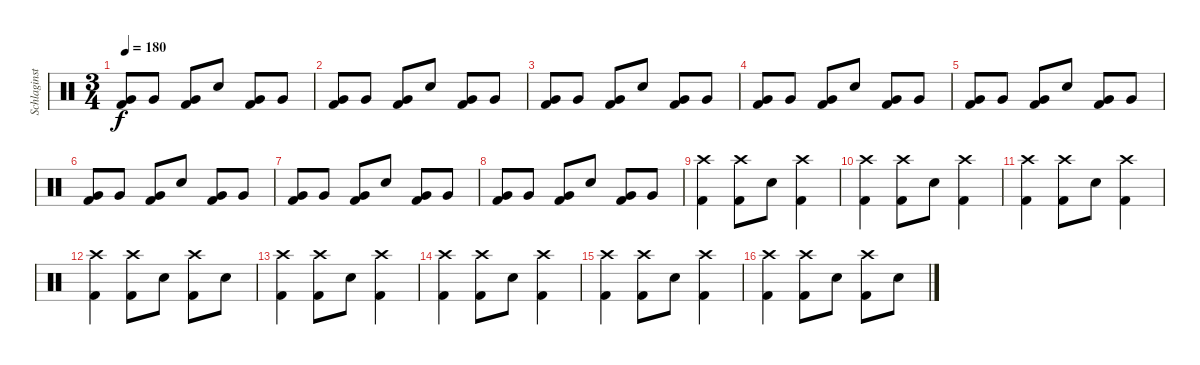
\track ("Schlaginstrumente - Auswahl" "Schlaginst") {instrument percussion}
\staff {score}
\articulation defaults
\ts (3 4)
\tempo 180
\clef neutral
\ks c
("Very Low Tom (hit)" "Kick (hit) 2").8{dy f} "Very Low Tom (hit)".8 ("Very Low Tom (hit)" "Kick (hit) 2").8 "Snare (hit) 2".8 ("Very Low Tom (hit)" "Kick (hit) 2").8 "Very Low Tom (hit)".8 |
("Very Low Tom (hit)" "Kick (hit) 2").8 "Very Low Tom (hit)".8 ("Very Low Tom (hit)" "Kick (hit) 2").8 "Snare (hit) 2".8 ("Very Low Tom (hit)" "Kick (hit) 2").8 "Very Low Tom (hit)".8 |
("Very Low Tom (hit)" "Kick (hit) 2").8 "Very Low Tom (hit)".8 ("Very Low Tom (hit)" "Kick (hit) 2").8 "Snare (hit) 2".8 ("Very Low Tom (hit)" "Kick (hit) 2").8 "Very Low Tom (hit)".8 |
("Very Low Tom (hit)" "Kick (hit) 2").8 "Very Low Tom (hit)".8 ("Very Low Tom (hit)" "Kick (hit) 2").8 "Snare (hit) 2".8 ("Very Low Tom (hit)" "Kick (hit) 2").8 "Very Low Tom (hit)".8 |
("Very Low Tom (hit)" "Kick (hit) 2").8 "Very Low Tom (hit)".8 ("Very Low Tom (hit)" "Kick (hit) 2").8 "Snare (hit) 2".8 ("Very Low Tom (hit)" "Kick (hit) 2").8 "Very Low Tom (hit)".8 |
("Very Low Tom (hit)" "Kick (hit) 2").8 "Very Low Tom (hit)".8 ("Very Low Tom (hit)" "Kick (hit) 2").8 "Snare (hit) 2".8 ("Very Low Tom (hit)" "Kick (hit) 2").8 "Very Low Tom (hit)".8 |
("Very Low Tom (hit)" "Kick (hit) 2").8 "Very Low Tom (hit)".8 ("Very Low Tom (hit)" "Kick (hit) 2").8 "Snare (hit) 2".8 ("Very Low Tom (hit)" "Kick (hit) 2").8 "Very Low Tom (hit)".8 |
("Very Low Tom (hit)" "Kick (hit) 2").8 "Very Low Tom (hit)".8 ("Very Low Tom (hit)" "Kick (hit) 2").8 "Snare (hit) 2".8 ("Very Low Tom (hit)" "Kick (hit) 2").8 "Very Low Tom (hit)".8 |
("Crash high (hit)" "Kick (hit) 2").4 ("Crash high (hit)" "Kick (hit) 2").8 "Snare (hit) 2".8 ("Crash high (hit)" "Kick (hit) 2").4 |
("Crash high (hit)" "Kick (hit) 2").4 ("Crash high (hit)" "Kick (hit) 2").8 "Snare (hit) 2".8 ("Crash high (hit)" "Kick (hit) 2").4 |
("Crash high (hit)" "Kick (hit) 2").4 ("Crash high (hit)" "Kick (hit) 2").8 "Snare (hit) 2".8 ("Crash high (hit)" "Kick (hit) 2").4 |
("Crash high (hit)" "Kick (hit) 2").4 ("Crash high (hit)" "Kick (hit) 2").8 "Snare (hit) 2".8 ("Crash high (hit)" "Kick (hit) 2").8 "Snare (hit) 2".8 |
("Crash high (hit)" "Kick (hit) 2").4 ("Crash high (hit)" "Kick (hit) 2").8 "Snare (hit) 2".8 ("Crash high (hit)" "Kick (hit) 2").4 |
("Crash high (hit)" "Kick (hit) 2").4 ("Crash high (hit)" "Kick (hit) 2").8 "Snare (hit) 2".8 ("Crash high (hit)" "Kick (hit) 2").4 |
("Crash high (hit)" "Kick (hit) 2").4 ("Crash high (hit)" "Kick (hit) 2").8 "Snare (hit) 2".8 ("Crash high (hit)" "Kick (hit) 2").4 |
("Crash high (hit)" "Kick (hit) 2").4 ("Crash high (hit)" "Kick (hit) 2").8 "Snare (hit) 2".8 ("Crash high (hit)" "Kick (hit) 2").8 "Snare (hit) 2".8
